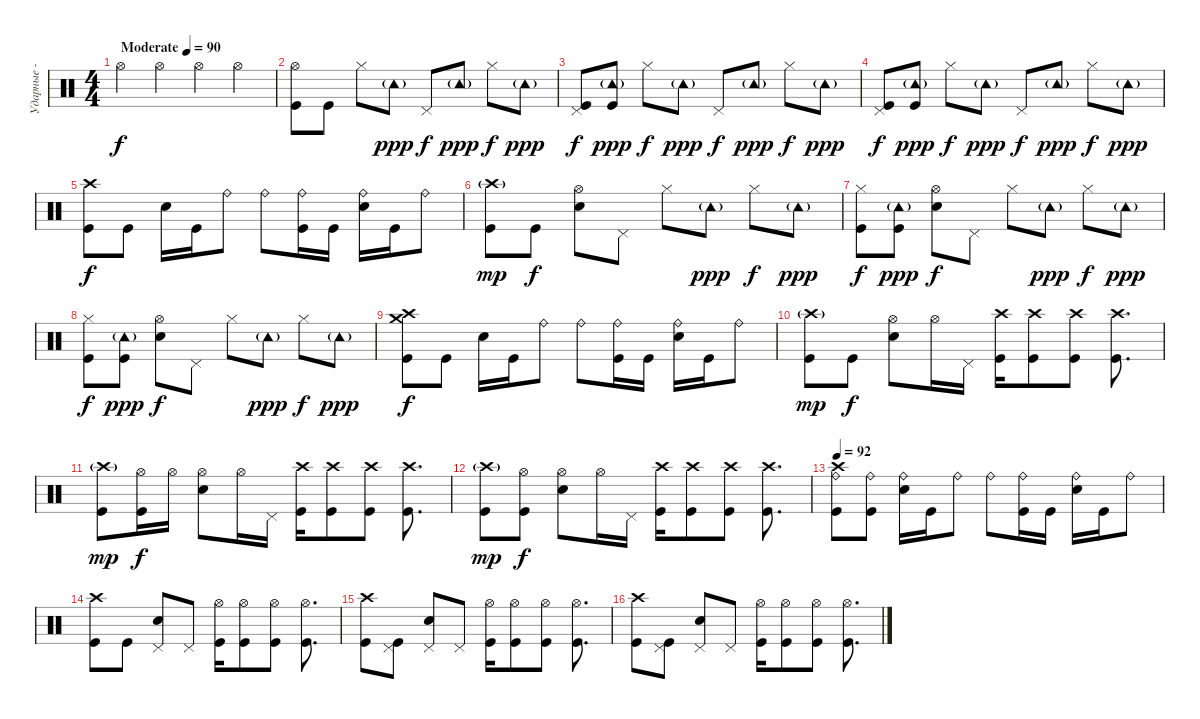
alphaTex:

\track ("Ударные - Джек Уайт" "Ударные - ") {instrument percussion}
\staff {score}
\articulation defaults
\ts (4 4)
\tempo (90 "Moderate")
\clef neutral
\ks c "Hi-Hat (open)".4{dy f} "Hi-Hat (open)".4 "Hi-Hat (open)".4 "Hi-Hat (open)".4
|
("Hi-Hat (open)" "Kick (hit)").8 "Kick (hit)".8 "Hi-Hat (closed)".8 "Tambourine (hit)"{g}.8{dy ppp} "Pedal Hi-Hat (hit)".8{dy f} "Tambourine (hit)"{g}.8{dy ppp} "Hi-Hat (closed)".8{dy f} "Tambourine (hit)"{g}.8{dy ppp} |
("Pedal Hi-Hat (hit)" "Kick (hit)").8{dy f} ("Tambourine (hit)"{g} "Kick (hit)").8{dy ppp} "Hi-Hat (closed)".8{dy f} "Tambourine (hit)"{g}.8{dy ppp} "Pedal Hi-Hat (hit)".8{dy f} "Tambourine (hit)"{g}.8{dy ppp} "Hi-Hat (closed)".8{dy f} "Tambourine (hit)"{g}.8{dy ppp} |
("Pedal Hi-Hat (hit)" "Kick (hit)").8{dy f} ("Tambourine (hit)"{g} "Kick (hit)").8{dy ppp} "Hi-Hat (closed)".8{dy f} "Tambourine (hit)"{g}.8{dy ppp} "Pedal Hi-Hat (hit)".8{dy f} "Tambourine (hit)"{g}.8{dy ppp} "Hi-Hat (closed)".8{dy f} "Tambourine (hit)"{g}.8{dy ppp} |
("Crash high (hit)" "Kick (hit)").8{dy f} "Kick (hit)".8 "Electric Snare (hit)".16 "Kick (hit)".16 "Ride (bell)".8 "Ride (bell)".8 ("Ride (bell)" "Kick (hit)").16 "Kick (hit)".16 ("Ride (bell)" "Electric Snare (hit)").16 "Kick (hit)".16 "Ride (bell)".8 |
("Crash high (hit)"{g} "Kick (hit)").8{dy mp} "Kick (hit)".8{dy f} ("Hi-Hat (open)" "Electric Snare (hit)").8 "Pedal Hi-Hat (hit)".8 "Hi-Hat (closed)".8 "Tambourine (hit)"{g}.8{dy ppp} "Hi-Hat (closed)".8{dy f} "Tambourine (hit)"{g}.8{dy ppp} |
("Hi-Hat (closed)" "Kick (hit)").8{dy f} ("Tambourine (hit)"{g} "Kick (hit)").8{dy ppp} ("Hi-Hat (open)" "Electric Snare (hit)").8{dy f} "Pedal Hi-Hat (hit)".8 "Hi-Hat (closed)".8 "Tambourine (hit)"{g}.8{dy ppp} "Hi-Hat (closed)".8{dy f} "Tambourine (hit)"{g}.8{dy ppp} |
("Hi-Hat (closed)" "Kick (hit)").8{dy f} ("Tambourine (hit)"{g} "Kick (hit)").8{dy ppp} ("Hi-Hat (open)" "Electric Snare (hit)").8{dy f} "Pedal Hi-Hat (hit)".8 "Hi-Hat (closed)".8 "Tambourine (hit)"{g}.8{dy ppp} "Hi-Hat (closed)".8{dy f} "Tambourine (hit)"{g}.8{dy ppp} |
("Crash high (hit)" "Crash medium (hit)" "Kick (hit)").8{dy f} "Kick (hit)".8 "Electric Snare (hit)".16 "Kick (hit)".16 "Ride (bell)".8 "Ride (bell)".8 ("Ride (bell)" "Kick (hit)").16 "Kick (hit)".16 ("Ride (bell)" "Electric Snare (hit)").16 "Kick (hit)".16 "Ride (bell)".8 |
("Crash high (hit)"{g} "Kick (hit)").8{dy mp} "Kick (hit)".8{dy f} ("Hi-Hat (open)" "Electric Snare (hit)").8 "Hi-Hat (open)".16 "Pedal Hi-Hat (hit)".16 ("Crash high (hit)" "Kick (hit)").16 ("Crash high (hit)" "Kick (hit)").8 ("Crash high (hit)" "Kick (hit)").8 ("Crash high (hit)" "Kick (hit)").8{d} |
("Crash high (hit)"{g} "Kick (hit)").8{dy mp} ("Hi-Hat (open)" "Kick (hit)").16{dy f} "Hi-Hat (open)".16 ("Hi-Hat (open)" "Electric Snare (hit)").8 "Hi-Hat (open)".16 "Pedal Hi-Hat (hit)".16 ("Crash high (hit)" "Kick (hit)").16 ("Crash high (hit)" "Kick (hit)").8 ("Crash high (hit)" "Kick (hit)").8 ("Crash high (hit)" "Kick (hit)").8{d} |
("Crash high (hit)"{g} "Kick (hit)").8{dy mp} ("Hi-Hat (open)" "Kick (hit)").8{dy f} ("Hi-Hat (open)" "Electric Snare (hit)").8 "Hi-Hat (open)".16 "Pedal Hi-Hat (hit)".16 ("Crash high (hit)" "Kick (hit)").16 ("Crash high (hit)" "Kick (hit)").8 ("Crash high (hit)" "Kick (hit)").8 ("Crash high (hit)" "Kick (hit)").8{d} |
\tempo 92
("Ride (bell)" "Crash high (hit)" "Kick (hit)").8 ("Ride (bell)" "Kick (hit)").8 ("Ride (bell)" "Electric Snare (hit)").16 "Kick (hit)".16 "Ride (bell)".8 "Ride (bell)".8 ("Ride (bell)" "Kick (hit)").16 "Kick (hit)".16 ("Ride (bell)" "Electric Snare (hit)").16 "Kick (hit)".16 "Ride (bell)".8 |
("Crash high (hit)" "Kick (hit)").8 "Kick (hit)".8 ("Pedal Hi-Hat (hit)" "Electric Snare (hit)").8 "Pedal Hi-Hat (hit)".8 ("Hi-Hat (open)" "Kick (hit)").16 ("Hi-Hat (open)" "Kick (hit)").8 ("Hi-Hat (open)" "Kick (hit)").8 ("Hi-Hat (open)" "Kick (hit)").8{d} |
("Crash high (hit)" "Kick (hit)").8 ("Pedal Hi-Hat (hit)" "Kick (hit)").8 ("Pedal Hi-Hat (hit)" "Electric Snare (hit)").8 "Pedal Hi-Hat (hit)".8 ("Hi-Hat (open)" "Kick (hit)").16 ("Hi-Hat (open)" "Kick (hit)").8 ("Hi-Hat (open)" "Kick (hit)").8 ("Hi-Hat (open)" "Kick (hit)").8{d} |
("Crash high (hit)" "Kick (hit)").8 ("Pedal Hi-Hat (hit)" "Kick (hit)").8 ("Pedal Hi-Hat (hit)" "Electric Snare (hit)").8 "Pedal Hi-Hat (hit)".8 ("Hi-Hat (open)" "Kick (hit)").16 ("Hi-Hat (open)" "Kick (hit)").8 ("Hi-Hat (open)" "Kick (hit)").8 ("Hi-Hat (open)" "Kick (hit)").8{d}
